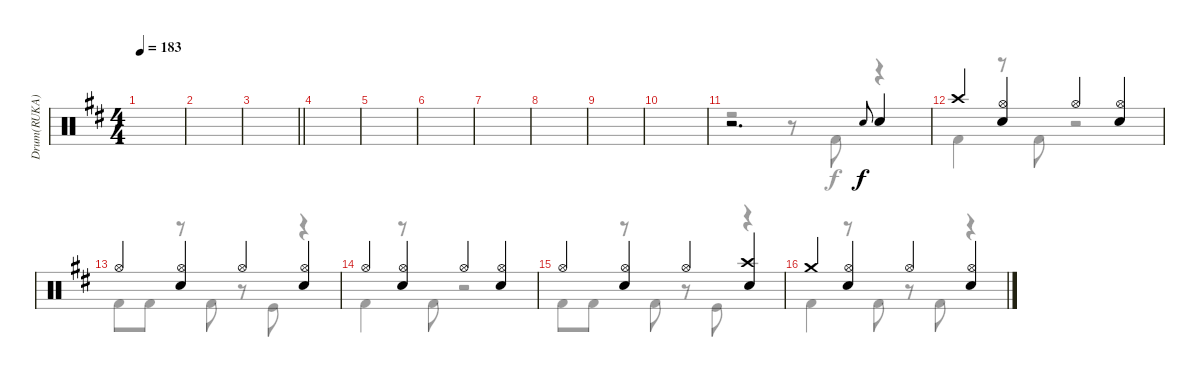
\track ("Drum(RUKA)" "Drum(RUKA)") {instrument percussion}
\staff {score}
\articulation defaults
\voice
\ts (4 4)
\tempo 183
\clef neutral
\ks d
|
|
\barLineRight lightlight
|
|
|
|
|
|
|
|
r.2{d} "Snare (hit) 2".8{gr onbeat} "Snare (hit) 2".4 |
"Crash high (hit)".4 ("Hi-Hat (open)" "Snare (hit) 2").4 "Hi-Hat (open)".4 ("Hi-Hat (open)" "Snare (hit) 2").4 |
"Hi-Hat (open)".4 ("Hi-Hat (open)" "Snare (hit) 2").4 "Hi-Hat (open)".4 ("Hi-Hat (open)" "Snare (hit) 2").4 |
"Hi-Hat (open)".4 ("Hi-Hat (open)" "Snare (hit) 2").4 "Hi-Hat (open)".4 ("Hi-Hat (open)" "Snare (hit) 2").4 |
"Hi-Hat (open)".4 ("Hi-Hat (open)" "Snare (hit) 2").4 "Hi-Hat (open)".4 ("Crash high (hit)" "Snare (hit) 2").4 |
"Crash medium (hit)".4 ("Hi-Hat (open)" "Snare (hit) 2").4 "Hi-Hat (open)".4 ("Hi-Hat (open)" "Snare (hit) 2").4
\voice
\clef neutral
\ottava regular
\simile none
\ks d
|
|
\barLineRight lightlight
|
|
|
|
|
|
|
|
r.2 r.8 "Kick (hit) 2".8 r.4 |
"Kick (hit) 2".4 r.8 "Kick (hit) 2".8 r.2 |
"Kick (hit) 2".8 "Kick (hit) 2".8 r.8 "Kick (hit) 2".8 r.8 "Kick (hit)".8 r.4 |
"Kick (hit) 2".4 r.8 "Kick (hit) 2".8 r.2 |
"Kick (hit) 2".8 "Kick (hit) 2".8 r.8 "Kick (hit) 2".8 r.8 "Kick (hit)".8 r.4 |
"Kick (hit) 2".4 r.8 "Kick (hit) 2".8 r.8 "Kick (hit) 2".8 r.4
